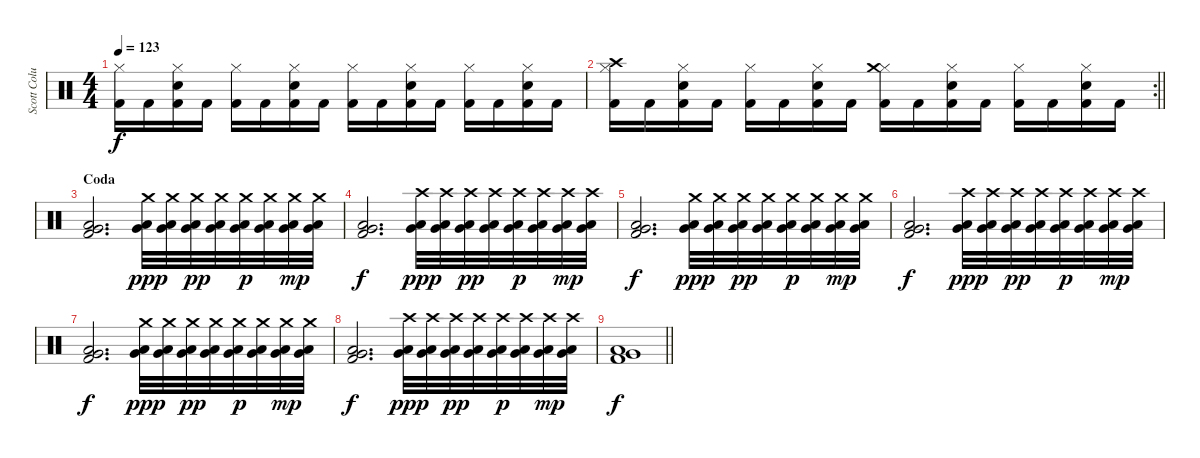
\track ("Scott Columbus" "Scott Colu") {instrument percussion}
\staff {score}
\articulation defaults
\ts (4 4)
\tempo 123
\clef neutral
\ks c
("Kick (hit) 2" "Hi-Hat (closed)").16{dy f} "Kick (hit) 2".16 ("Kick (hit) 2" "Electric Snare (hit)" "Hi-Hat (closed)").16 "Kick (hit) 2".16 ("Kick (hit) 2" "Hi-Hat (closed)").16 "Kick (hit) 2".16 ("Kick (hit) 2" "Electric Snare (hit)" "Hi-Hat (closed)").16 "Kick (hit) 2".16 ("Kick (hit) 2" "Hi-Hat (closed)").16 "Kick (hit) 2".16 ("Kick (hit) 2" "Electric Snare (hit)" "Hi-Hat (closed)").16 "Kick (hit) 2".16 ("Kick (hit) 2" "Hi-Hat (closed)").16 "Kick (hit) 2".16 ("Kick (hit) 2" "Electric Snare (hit)" "Hi-Hat (closed)").16 "Kick (hit) 2".16 |
\rc 2
\barLineRight lightlight
("Kick (hit) 2" "Hi-Hat (closed)" "Crash high (hit)").16 "Kick (hit) 2".16 ("Kick (hit) 2" "Electric Snare (hit)" "Hi-Hat (closed)").16 "Kick (hit) 2".16 ("Kick (hit) 2" "Hi-Hat (closed)").16 "Kick (hit) 2".16 ("Kick (hit) 2" "Electric Snare (hit)" "Hi-Hat (closed)").16 "Kick (hit) 2".16 ("Kick (hit) 2" "Hi-Hat (closed)" "Crash medium (hit)").16 "Kick (hit) 2".16 ("Kick (hit) 2" "Electric Snare (hit)" "Hi-Hat (closed)").16 "Kick (hit) 2".16 ("Kick (hit) 2" "Hi-Hat (closed)").16 "Kick (hit) 2".16 ("Kick (hit) 2" "Electric Snare (hit)" "Hi-Hat (closed)").16 "Kick (hit) 2".16 |
\section ("" "Coda")
("Kick (hit) 2" "Low Tom (hit)" "Very Low Tom (hit)").2{d} ("Low Tom (hit)" "Very Low Tom (hit)" "Crash medium (hit)").32{dy ppp} ("Low Tom (hit)" "Very Low Tom (hit)" "Crash medium (hit)").32 ("Low Tom (hit)" "Very Low Tom (hit)" "Crash medium (hit)").32{dy pp} ("Low Tom (hit)" "Very Low Tom (hit)" "Crash medium (hit)").32 ("Low Tom (hit)" "Very Low Tom (hit)" "Crash medium (hit)").32{dy p} ("Low Tom (hit)" "Very Low Tom (hit)" "Crash medium (hit)").32 ("Low Tom (hit)" "Very Low Tom (hit)" "Crash medium (hit)").32{dy mp} ("Low Tom (hit)" "Very Low Tom (hit)" "Crash medium (hit)").32 |
("Kick (hit) 2" "Low Tom (hit)" "Very Low Tom (hit)").2{d dy f} ("Low Tom (hit)" "Very Low Tom (hit)" "Crash high (hit)").32{dy ppp} ("Low Tom (hit)" "Very Low Tom (hit)" "Crash high (hit)").32 ("Low Tom (hit)" "Very Low Tom (hit)" "Crash high (hit)").32{dy pp} ("Low Tom (hit)" "Very Low Tom (hit)" "Crash high (hit)").32 ("Low Tom (hit)" "Very Low Tom (hit)" "Crash high (hit)").32{dy p} ("Low Tom (hit)" "Very Low Tom (hit)" "Crash high (hit)").32 ("Low Tom (hit)" "Very Low Tom (hit)" "Crash high (hit)").32{dy mp} ("Low Tom (hit)" "Very Low Tom (hit)" "Crash high (hit)").32 |
("Kick (hit) 2" "Low Tom (hit)" "Very Low Tom (hit)").2{d dy f} ("Low Tom (hit)" "Very Low Tom (hit)" "Crash medium (hit)").32{dy ppp} ("Low Tom (hit)" "Very Low Tom (hit)" "Crash medium (hit)").32 ("Low Tom (hit)" "Very Low Tom (hit)" "Crash medium (hit)").32{dy pp} ("Low Tom (hit)" "Very Low Tom (hit)" "Crash medium (hit)").32 ("Low Tom (hit)" "Very Low Tom (hit)" "Crash medium (hit)").32{dy p} ("Low Tom (hit)" "Very Low Tom (hit)" "Crash medium (hit)").32 ("Low Tom (hit)" "Very Low Tom (hit)" "Crash medium (hit)").32{dy mp} ("Low Tom (hit)" "Very Low Tom (hit)" "Crash medium (hit)").32 |
("Kick (hit) 2" "Low Tom (hit)" "Very Low Tom (hit)").2{d dy f} ("Low Tom (hit)" "Very Low Tom (hit)" "Crash high (hit)").32{dy ppp} ("Low Tom (hit)" "Very Low Tom (hit)" "Crash high (hit)").32 ("Low Tom (hit)" "Very Low Tom (hit)" "Crash high (hit)").32{dy pp} ("Low Tom (hit)" "Very Low Tom (hit)" "Crash high (hit)").32 ("Low Tom (hit)" "Very Low Tom (hit)" "Crash high (hit)").32{dy p} ("Low Tom (hit)" "Very Low Tom (hit)" "Crash high (hit)").32 ("Low Tom (hit)" "Very Low Tom (hit)" "Crash high (hit)").32{dy mp} ("Low Tom (hit)" "Very Low Tom (hit)" "Crash high (hit)").32 |
("Kick (hit) 2" "Low Tom (hit)" "Very Low Tom (hit)").2{d dy f} ("Low Tom (hit)" "Very Low Tom (hit)" "Crash medium (hit)").32{dy ppp} ("Low Tom (hit)" "Very Low Tom (hit)" "Crash medium (hit)").32 ("Low Tom (hit)" "Very Low Tom (hit)" "Crash medium (hit)").32{dy pp} ("Low Tom (hit)" "Very Low Tom (hit)" "Crash medium (hit)").32 ("Low Tom (hit)" "Very Low Tom (hit)" "Crash medium (hit)").32{dy p} ("Low Tom (hit)" "Very Low Tom (hit)" "Crash medium (hit)").32 ("Low Tom (hit)" "Very Low Tom (hit)" "Crash medium (hit)").32{dy mp} ("Low Tom (hit)" "Very Low Tom (hit)" "Crash medium (hit)").32 |
("Kick (hit) 2" "Low Tom (hit)" "Very Low Tom (hit)").2{d dy f} ("Low Tom (hit)" "Very Low Tom (hit)" "Crash high (hit)").32{dy ppp} ("Low Tom (hit)" "Very Low Tom (hit)" "Crash high (hit)").32 ("Low Tom (hit)" "Very Low Tom (hit)" "Crash high (hit)").32{dy pp} ("Low Tom (hit)" "Very Low Tom (hit)" "Crash high (hit)").32 ("Low Tom (hit)" "Very Low Tom (hit)" "Crash high (hit)").32{dy p} ("Low Tom (hit)" "Very Low Tom (hit)" "Crash high (hit)").32 ("Low Tom (hit)" "Very Low Tom (hit)" "Crash high (hit)").32{dy mp} ("Low Tom (hit)" "Very Low Tom (hit)" "Crash high (hit)").32 |
\barLineRight lightlight
("Kick (hit) 2" "Low Tom (hit)" "Very Low Tom (hit)").1{dy f}
